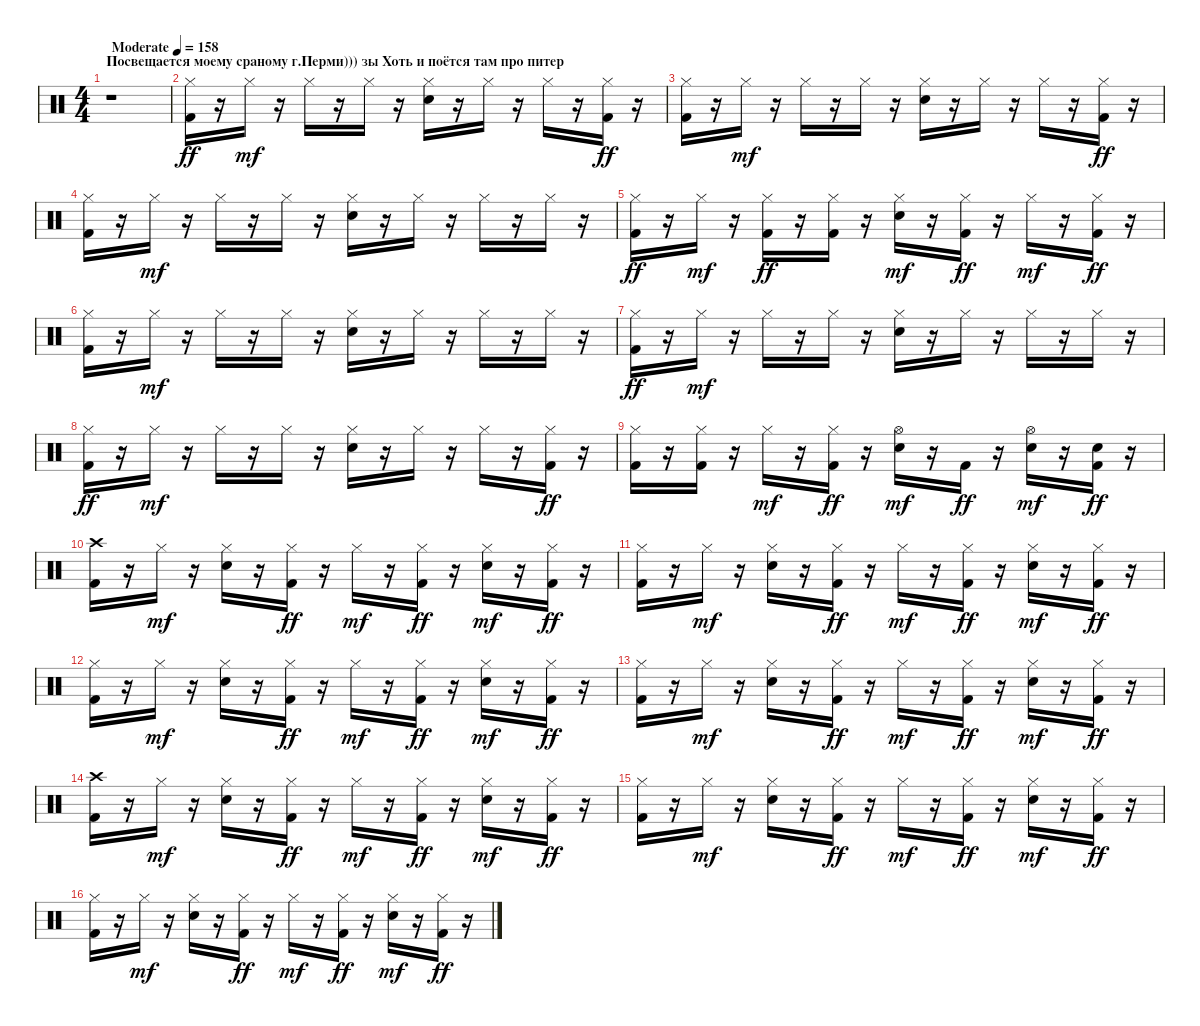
\track ("   " "   ") {instrument percussion}
\staff
\articulation defaults
\ts (4 4)
\section ("" "Посвещается моему сраному г.Перми))) зы Хоть и поётся там про питер")
\tempo (158 "Moderate")
\clef neutral
\ks c
r.1{dy ff} |
("Hi-Hat (closed)" "Kick (hit) 2").16 r.16 "Hi-Hat (closed)".16{dy mf} r.16 "Hi-Hat (closed)".16 r.16 "Hi-Hat (closed)".16 r.16 ("Hi-Hat (closed)" "Hand Clap (hit)").16 r.16 "Hi-Hat (closed)".16 r.16 "Hi-Hat (closed)".16 r.16 ("Hi-Hat (closed)" "Kick (hit) 2").16{dy ff} r.16 |
("Hi-Hat (closed)" "Kick (hit) 2").16 r.16 "Hi-Hat (closed)".16{dy mf} r.16 "Hi-Hat (closed)".16 r.16 "Hi-Hat (closed)".16 r.16 ("Hi-Hat (closed)" "Hand Clap (hit)").16 r.16 "Hi-Hat (closed)".16 r.16 "Hi-Hat (closed)".16 r.16 ("Hi-Hat (closed)" "Kick (hit) 2").16{dy ff} r.16 |
("Hi-Hat (closed)" "Kick (hit) 2").16 r.16 "Hi-Hat (closed)".16{dy mf} r.16 "Hi-Hat (closed)".16 r.16 "Hi-Hat (closed)".16 r.16 ("Hi-Hat (closed)" "Hand Clap (hit)").16 r.16 "Hi-Hat (closed)".16 r.16 "Hi-Hat (closed)".16 r.16 "Hi-Hat (closed)".16 r.16 |
("Hi-Hat (closed)" "Kick (hit) 2").16{dy ff} r.16 "Hi-Hat (closed)".16{dy mf} r.16 ("Hi-Hat (closed)" "Kick (hit) 2").16{dy ff} r.16 ("Hi-Hat (closed)" "Kick (hit) 2").16 r.16 ("Hi-Hat (closed)" "Hand Clap (hit)").16{dy mf} r.16 ("Hi-Hat (closed)" "Kick (hit) 2").16{dy ff} r.16 "Hi-Hat (closed)".16{dy mf} r.16 ("Hi-Hat (closed)" "Kick (hit) 2").16{dy ff} r.16 |
("Hi-Hat (closed)" "Kick (hit) 2").16 r.16 "Hi-Hat (closed)".16{dy mf} r.16 "Hi-Hat (closed)".16 r.16 "Hi-Hat (closed)".16 r.16 ("Hi-Hat (closed)" "Hand Clap (hit)").16 r.16 "Hi-Hat (closed)".16 r.16 "Hi-Hat (closed)".16 r.16 "Hi-Hat (closed)".16 r.16 |
("Hi-Hat (closed)" "Kick (hit) 2").16{dy ff} r.16 "Hi-Hat (closed)".16{dy mf} r.16 "Hi-Hat (closed)".16 r.16 "Hi-Hat (closed)".16 r.16 ("Hi-Hat (closed)" "Hand Clap (hit)").16 r.16 "Hi-Hat (closed)".16 r.16 "Hi-Hat (closed)".16 r.16 "Hi-Hat (closed)".16 r.16 |
("Hi-Hat (closed)" "Kick (hit) 2").16{dy ff} r.16 "Hi-Hat (closed)".16{dy mf} r.16 "Hi-Hat (closed)".16 r.16 "Hi-Hat (closed)".16 r.16 ("Hi-Hat (closed)" "Hand Clap (hit)").16 r.16 "Hi-Hat (closed)".16 r.16 "Hi-Hat (closed)".16 r.16 ("Hi-Hat (closed)" "Kick (hit) 2").16{dy ff} r.16 |
("Hi-Hat (closed)" "Kick (hit) 2").16 r.16 ("Hi-Hat (closed)" "Kick (hit) 2").16 r.16 "Hi-Hat (closed)".16{dy mf} r.16 ("Hi-Hat (closed)" "Kick (hit) 2").16{dy ff} r.16 ("Hi-Hat (open)" "Hand Clap (hit)").16{dy mf} r.16 "Kick (hit) 2".16{dy ff} r.16 ("Hi-Hat (open)" "Electric Snare (hit)").16{dy mf} r.16 ("Electric Snare (hit)" "Kick (hit) 2").16{dy ff} r.16 |
("Crash high (hit)" "Kick (hit) 2").16 r.16 "Hi-Hat (closed)".16{dy mf} r.16 ("Hi-Hat (closed)" "Electric Snare (hit)").16 r.16 ("Hi-Hat (closed)" "Kick (hit) 2").16{dy ff} r.16 "Hi-Hat (closed)".16{dy mf} r.16 ("Hi-Hat (closed)" "Kick (hit) 2").16{dy ff} r.16 ("Hi-Hat (closed)" "Electric Snare (hit)").16{dy mf} r.16 ("Hi-Hat (closed)" "Kick (hit) 2").16{dy ff} r.16 |
("Hi-Hat (closed)" "Kick (hit) 2").16 r.16 "Hi-Hat (closed)".16{dy mf} r.16 ("Hi-Hat (closed)" "Electric Snare (hit)").16 r.16 ("Hi-Hat (closed)" "Kick (hit) 2").16{dy ff} r.16 "Hi-Hat (closed)".16{dy mf} r.16 ("Hi-Hat (closed)" "Kick (hit) 2").16{dy ff} r.16 ("Hi-Hat (closed)" "Electric Snare (hit)").16{dy mf} r.16 ("Hi-Hat (closed)" "Kick (hit) 2").16{dy ff} r.16 |
("Hi-Hat (closed)" "Kick (hit) 2").16 r.16 "Hi-Hat (closed)".16{dy mf} r.16 ("Hi-Hat (closed)" "Electric Snare (hit)").16 r.16 ("Hi-Hat (closed)" "Kick (hit) 2").16{dy ff} r.16 "Hi-Hat (closed)".16{dy mf} r.16 ("Hi-Hat (closed)" "Kick (hit) 2").16{dy ff} r.16 ("Hi-Hat (closed)" "Electric Snare (hit)").16{dy mf} r.16 ("Hi-Hat (closed)" "Kick (hit) 2").16{dy ff} r.16 |
("Hi-Hat (closed)" "Kick (hit) 2").16 r.16 "Hi-Hat (closed)".16{dy mf} r.16 ("Hi-Hat (closed)" "Electric Snare (hit)").16 r.16 ("Hi-Hat (closed)" "Kick (hit) 2").16{dy ff} r.16 "Hi-Hat (closed)".16{dy mf} r.16 ("Hi-Hat (closed)" "Kick (hit) 2").16{dy ff} r.16 ("Hi-Hat (closed)" "Electric Snare (hit)").16{dy mf} r.16 ("Hi-Hat (closed)" "Kick (hit) 2").16{dy ff} r.16 |
("Crash high (hit)" "Kick (hit) 2").16 r.16 "Hi-Hat (closed)".16{dy mf} r.16 ("Hi-Hat (closed)" "Electric Snare (hit)").16 r.16 ("Hi-Hat (closed)" "Kick (hit) 2").16{dy ff} r.16 "Hi-Hat (closed)".16{dy mf} r.16 ("Hi-Hat (closed)" "Kick (hit) 2").16{dy ff} r.16 ("Hi-Hat (closed)" "Electric Snare (hit)").16{dy mf} r.16 ("Hi-Hat (closed)" "Kick (hit) 2").16{dy ff} r.16 |
("Hi-Hat (closed)" "Kick (hit) 2").16 r.16 "Hi-Hat (closed)".16{dy mf} r.16 ("Hi-Hat (closed)" "Electric Snare (hit)").16 r.16 ("Hi-Hat (closed)" "Kick (hit) 2").16{dy ff} r.16 "Hi-Hat (closed)".16{dy mf} r.16 ("Hi-Hat (closed)" "Kick (hit) 2").16{dy ff} r.16 ("Hi-Hat (closed)" "Electric Snare (hit)").16{dy mf} r.16 ("Hi-Hat (closed)" "Kick (hit) 2").16{dy ff} r.16 |
("Hi-Hat (closed)" "Kick (hit) 2").16 r.16 "Hi-Hat (closed)".16{dy mf} r.16 ("Hi-Hat (closed)" "Electric Snare (hit)").16 r.16 ("Hi-Hat (closed)" "Kick (hit) 2").16{dy ff} r.16 "Hi-Hat (closed)".16{dy mf} r.16 ("Hi-Hat (closed)" "Kick (hit) 2").16{dy ff} r.16 ("Hi-Hat (closed)" "Electric Snare (hit)").16{dy mf} r.16 ("Hi-Hat (closed)" "Kick (hit) 2").16{dy ff} r.16
